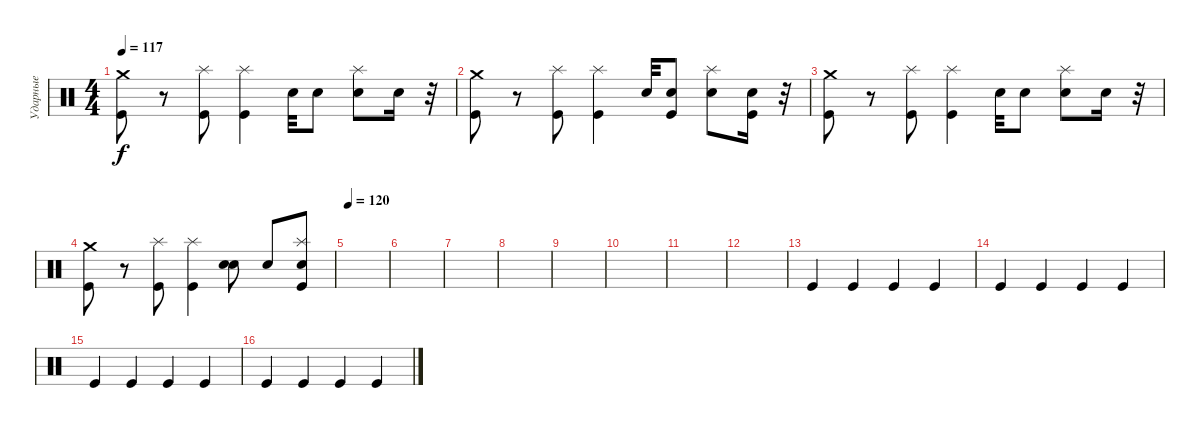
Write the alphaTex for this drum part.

\track ("Ударные" "Ударные") {instrument percussion}
\staff {score}
\articulation defaults
\ts (4 4)
\tempo 117
\clef neutral
\ks c
("Crash medium (hit)" "Kick (hit)").8{dy f} r.8 ("Splash (hit)" "Kick (hit)").8 ("Splash (hit)" "Kick (hit)").4 "Snare (hit) 2".32 "Snare (hit) 2".8 ("Splash (hit)" "Electric Snare (hit)").8 "Snare (hit) 2".16 r.32 |
("Crash medium (hit)" "Kick (hit)").8 r.8 ("Splash (hit)" "Kick (hit)").8 ("Splash (hit)" "Kick (hit)").4 "Snare (hit) 2".32 ("Snare (hit) 2" "Kick (hit)").8 ("Splash (hit)" "Electric Snare (hit)").8 ("Snare (hit) 2" "Kick (hit)").16 r.32 |
("Crash medium (hit)" "Kick (hit)").8 r.8 ("Splash (hit)" "Kick (hit)").8 ("Splash (hit)" "Kick (hit)").4 "Snare (hit) 2".32 "Snare (hit) 2".8 ("Splash (hit)" "Electric Snare (hit)").8 "Snare (hit) 2".16 r.32 |
("Crash medium (hit)" "Kick (hit)").8 r.8 ("Splash (hit)" "Kick (hit)").8 ("Splash (hit)" "Kick (hit)").4 ("Snare (hit) 2" "Snare (hit) 2").8 "Snare (hit) 2".8 ("Splash (hit)" "Snare (hit) 2" "Kick (hit)").8 |
\tempo 120
|
|
|
|
|
|
|
|
"Kick (hit)".4 "Kick (hit)".4 "Kick (hit)".4 "Kick (hit)".4 |
"Kick (hit)".4 "Kick (hit)".4 "Kick (hit)".4 "Kick (hit)".4 |
"Kick (hit)".4 "Kick (hit)".4 "Kick (hit)".4 "Kick (hit)".4 |
"Kick (hit)".4 "Kick (hit)".4 "Kick (hit)".4 "Kick (hit)".4
